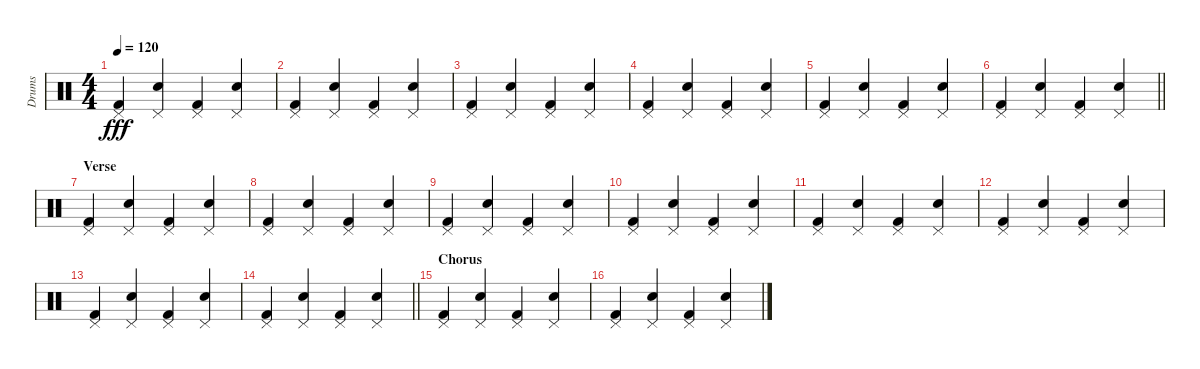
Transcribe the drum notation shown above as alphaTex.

\track ("Drums" "Drums") {instrument percussion}
\staff {score}
\articulation defaults
\ts (4 4)
\tempo 120
\clef neutral
\ks c
("Pedal Hi-Hat (hit)" "Kick (hit) 2").4{dy fff} ("Pedal Hi-Hat (hit)" "Electric Snare (hit)").4 ("Pedal Hi-Hat (hit)" "Kick (hit) 2").4 ("Pedal Hi-Hat (hit)" "Electric Snare (hit)").4 |
("Pedal Hi-Hat (hit)" "Kick (hit) 2").4 ("Pedal Hi-Hat (hit)" "Electric Snare (hit)").4 ("Pedal Hi-Hat (hit)" "Kick (hit) 2").4 ("Pedal Hi-Hat (hit)" "Electric Snare (hit)").4 |
("Pedal Hi-Hat (hit)" "Kick (hit) 2").4 ("Pedal Hi-Hat (hit)" "Electric Snare (hit)").4 ("Pedal Hi-Hat (hit)" "Kick (hit) 2").4 ("Pedal Hi-Hat (hit)" "Electric Snare (hit)").4 |
("Pedal Hi-Hat (hit)" "Kick (hit) 2").4 ("Pedal Hi-Hat (hit)" "Electric Snare (hit)").4 ("Pedal Hi-Hat (hit)" "Kick (hit) 2").4 ("Pedal Hi-Hat (hit)" "Electric Snare (hit)").4 |
("Pedal Hi-Hat (hit)" "Kick (hit) 2").4 ("Pedal Hi-Hat (hit)" "Electric Snare (hit)").4 ("Pedal Hi-Hat (hit)" "Kick (hit) 2").4 ("Pedal Hi-Hat (hit)" "Electric Snare (hit)").4 |
\barLineRight lightlight
("Pedal Hi-Hat (hit)" "Kick (hit) 2").4 ("Pedal Hi-Hat (hit)" "Electric Snare (hit)").4 ("Pedal Hi-Hat (hit)" "Kick (hit) 2").4 ("Pedal Hi-Hat (hit)" "Electric Snare (hit)").4 |
\section ("" "Verse")
("Pedal Hi-Hat (hit)" "Kick (hit) 2").4 ("Pedal Hi-Hat (hit)" "Electric Snare (hit)").4 ("Pedal Hi-Hat (hit)" "Kick (hit) 2").4 ("Pedal Hi-Hat (hit)" "Electric Snare (hit)").4 |
("Pedal Hi-Hat (hit)" "Kick (hit) 2").4 ("Pedal Hi-Hat (hit)" "Electric Snare (hit)").4 ("Pedal Hi-Hat (hit)" "Kick (hit) 2").4 ("Pedal Hi-Hat (hit)" "Electric Snare (hit)").4 |
("Pedal Hi-Hat (hit)" "Kick (hit) 2").4 ("Pedal Hi-Hat (hit)" "Electric Snare (hit)").4 ("Pedal Hi-Hat (hit)" "Kick (hit) 2").4 ("Pedal Hi-Hat (hit)" "Electric Snare (hit)").4 |
("Pedal Hi-Hat (hit)" "Kick (hit) 2").4 ("Pedal Hi-Hat (hit)" "Electric Snare (hit)").4 ("Pedal Hi-Hat (hit)" "Kick (hit) 2").4 ("Pedal Hi-Hat (hit)" "Electric Snare (hit)").4 |
("Pedal Hi-Hat (hit)" "Kick (hit) 2").4 ("Pedal Hi-Hat (hit)" "Electric Snare (hit)").4 ("Pedal Hi-Hat (hit)" "Kick (hit) 2").4 ("Pedal Hi-Hat (hit)" "Electric Snare (hit)").4 |
("Pedal Hi-Hat (hit)" "Kick (hit) 2").4 ("Pedal Hi-Hat (hit)" "Electric Snare (hit)").4 ("Pedal Hi-Hat (hit)" "Kick (hit) 2").4 ("Pedal Hi-Hat (hit)" "Electric Snare (hit)").4 |
("Pedal Hi-Hat (hit)" "Kick (hit) 2").4 ("Pedal Hi-Hat (hit)" "Electric Snare (hit)").4 ("Pedal Hi-Hat (hit)" "Kick (hit) 2").4 ("Pedal Hi-Hat (hit)" "Electric Snare (hit)").4 |
\barLineRight lightlight
("Pedal Hi-Hat (hit)" "Kick (hit) 2").4 ("Pedal Hi-Hat (hit)" "Electric Snare (hit)").4 ("Pedal Hi-Hat (hit)" "Kick (hit) 2").4 ("Pedal Hi-Hat (hit)" "Electric Snare (hit)").4 |
\section ("" "Chorus")
("Pedal Hi-Hat (hit)" "Kick (hit) 2").4 ("Pedal Hi-Hat (hit)" "Electric Snare (hit)").4 ("Pedal Hi-Hat (hit)" "Kick (hit) 2").4 ("Pedal Hi-Hat (hit)" "Electric Snare (hit)").4 |
("Pedal Hi-Hat (hit)" "Kick (hit) 2").4 ("Pedal Hi-Hat (hit)" "Electric Snare (hit)").4 ("Pedal Hi-Hat (hit)" "Kick (hit) 2").4 ("Pedal Hi-Hat (hit)" "Electric Snare (hit)").4
